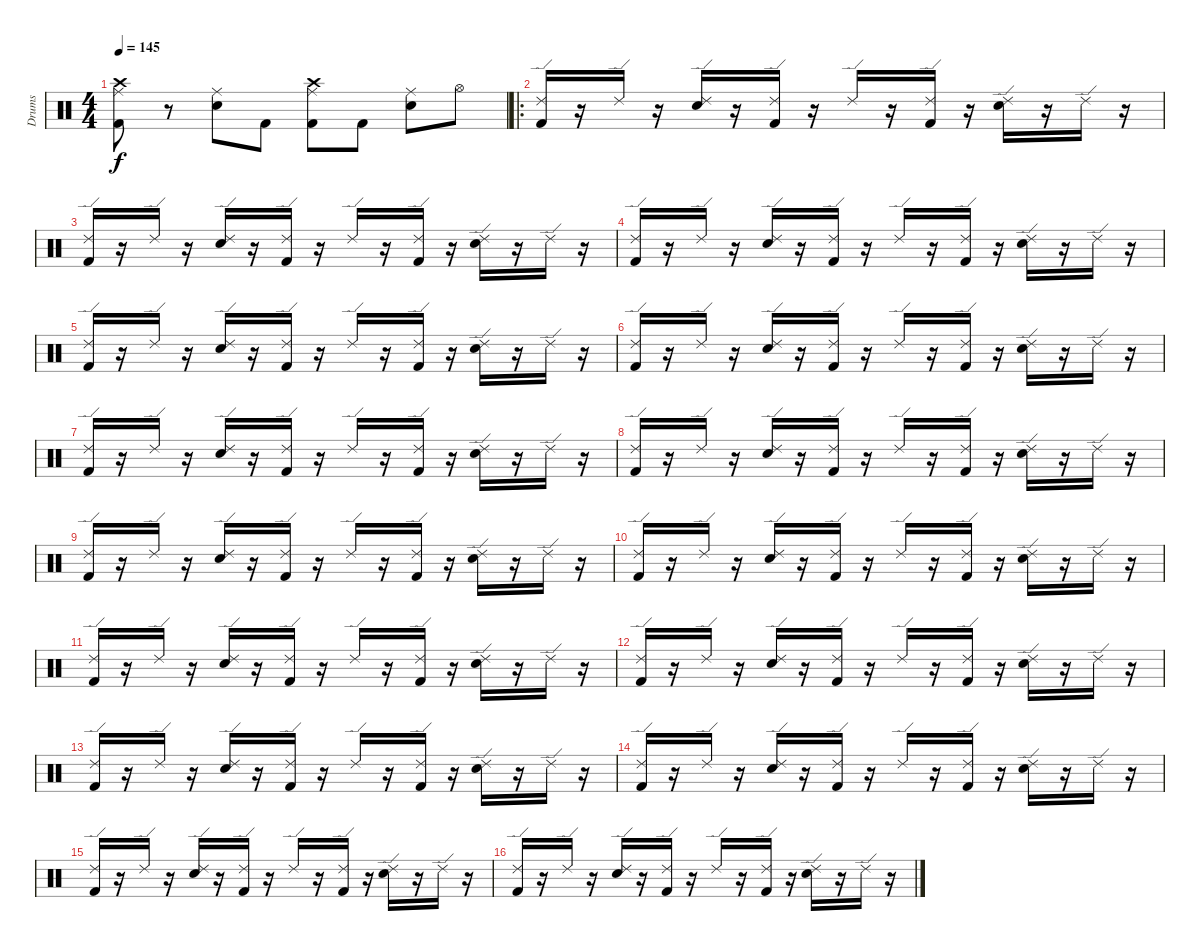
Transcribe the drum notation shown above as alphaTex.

\track ("Drums" "Drums") {instrument percussion}
\staff {score}
\articulation defaults
\ts (4 4)
\tempo 145
\clef neutral
\ks c
("Ride (middle)" "Kick (hit) 2" "Crash high (hit)").8{dy f} r.8 ("Ride (middle)" "Electric Snare (hit)").8 "Kick (hit) 2".8 ("Ride (middle)" "Kick (hit) 2" "Crash high (hit)").8 "Kick (hit) 2".8 ("Ride (middle)" "Electric Snare (hit)").8 "Hi-Hat (open)".8 |
\ro
("Ride (edge) 2" "Kick (hit) 2").16 r.16 "Ride (edge) 2".16 r.16 ("Ride (edge) 2" "Electric Snare (hit)").16 r.16 ("Ride (edge) 2" "Kick (hit) 2").16 r.16 "Ride (edge) 2".16 r.16 ("Ride (edge) 2" "Kick (hit) 2").16 r.16 ("Ride (edge) 2" "Electric Snare (hit)").16 r.16 "Ride (edge) 2".16 r.16 |
("Ride (edge) 2" "Kick (hit) 2").16 r.16 "Ride (edge) 2".16 r.16 ("Ride (edge) 2" "Electric Snare (hit)").16 r.16 ("Ride (edge) 2" "Kick (hit) 2").16 r.16 "Ride (edge) 2".16 r.16 ("Ride (edge) 2" "Kick (hit) 2").16 r.16 ("Ride (edge) 2" "Electric Snare (hit)").16 r.16 "Ride (edge) 2".16 r.16 |
("Ride (edge) 2" "Kick (hit) 2").16 r.16 "Ride (edge) 2".16 r.16 ("Ride (edge) 2" "Electric Snare (hit)").16 r.16 ("Ride (edge) 2" "Kick (hit) 2").16 r.16 "Ride (edge) 2".16 r.16 ("Ride (edge) 2" "Kick (hit) 2").16 r.16 ("Ride (edge) 2" "Electric Snare (hit)").16 r.16 "Ride (edge) 2".16 r.16 |
("Ride (edge) 2" "Kick (hit) 2").16 r.16 "Ride (edge) 2".16 r.16 ("Ride (edge) 2" "Electric Snare (hit)").16 r.16 ("Ride (edge) 2" "Kick (hit) 2").16 r.16 "Ride (edge) 2".16 r.16 ("Ride (edge) 2" "Kick (hit) 2").16 r.16 ("Ride (edge) 2" "Electric Snare (hit)").16 r.16 "Ride (edge) 2".16 r.16 |
("Ride (edge) 2" "Kick (hit) 2").16 r.16 "Ride (edge) 2".16 r.16 ("Ride (edge) 2" "Electric Snare (hit)").16 r.16 ("Ride (edge) 2" "Kick (hit) 2").16 r.16 "Ride (edge) 2".16 r.16 ("Ride (edge) 2" "Kick (hit) 2").16 r.16 ("Ride (edge) 2" "Electric Snare (hit)").16 r.16 "Ride (edge) 2".16 r.16 |
("Ride (edge) 2" "Kick (hit) 2").16 r.16 "Ride (edge) 2".16 r.16 ("Ride (edge) 2" "Electric Snare (hit)").16 r.16 ("Ride (edge) 2" "Kick (hit) 2").16 r.16 "Ride (edge) 2".16 r.16 ("Ride (edge) 2" "Kick (hit) 2").16 r.16 ("Ride (edge) 2" "Electric Snare (hit)").16 r.16 "Ride (edge) 2".16 r.16 |
("Ride (edge) 2" "Kick (hit) 2").16 r.16 "Ride (edge) 2".16 r.16 ("Ride (edge) 2" "Electric Snare (hit)").16 r.16 ("Ride (edge) 2" "Kick (hit) 2").16 r.16 "Ride (edge) 2".16 r.16 ("Ride (edge) 2" "Kick (hit) 2").16 r.16 ("Ride (edge) 2" "Electric Snare (hit)").16 r.16 "Ride (edge) 2".16 r.16 |
("Ride (edge) 2" "Kick (hit) 2").16 r.16 "Ride (edge) 2".16 r.16 ("Ride (edge) 2" "Electric Snare (hit)").16 r.16 ("Ride (edge) 2" "Kick (hit) 2").16 r.16 "Ride (edge) 2".16 r.16 ("Ride (edge) 2" "Kick (hit) 2").16 r.16 ("Ride (edge) 2" "Electric Snare (hit)").16 r.16 "Ride (edge) 2".16 r.16 |
("Ride (edge) 2" "Kick (hit) 2").16 r.16 "Ride (edge) 2".16 r.16 ("Ride (edge) 2" "Electric Snare (hit)").16 r.16 ("Ride (edge) 2" "Kick (hit) 2").16 r.16 "Ride (edge) 2".16 r.16 ("Ride (edge) 2" "Kick (hit) 2").16 r.16 ("Ride (edge) 2" "Electric Snare (hit)").16 r.16 "Ride (edge) 2".16 r.16 |
("Ride (edge) 2" "Kick (hit) 2").16 r.16 "Ride (edge) 2".16 r.16 ("Ride (edge) 2" "Electric Snare (hit)").16 r.16 ("Ride (edge) 2" "Kick (hit) 2").16 r.16 "Ride (edge) 2".16 r.16 ("Ride (edge) 2" "Kick (hit) 2").16 r.16 ("Ride (edge) 2" "Electric Snare (hit)").16 r.16 "Ride (edge) 2".16 r.16 |
("Ride (edge) 2" "Kick (hit) 2").16 r.16 "Ride (edge) 2".16 r.16 ("Ride (edge) 2" "Electric Snare (hit)").16 r.16 ("Ride (edge) 2" "Kick (hit) 2").16 r.16 "Ride (edge) 2".16 r.16 ("Ride (edge) 2" "Kick (hit) 2").16 r.16 ("Ride (edge) 2" "Electric Snare (hit)").16 r.16 "Ride (edge) 2".16 r.16 |
("Ride (edge) 2" "Kick (hit) 2").16 r.16 "Ride (edge) 2".16 r.16 ("Ride (edge) 2" "Electric Snare (hit)").16 r.16 ("Ride (edge) 2" "Kick (hit) 2").16 r.16 "Ride (edge) 2".16 r.16 ("Ride (edge) 2" "Kick (hit) 2").16 r.16 ("Ride (edge) 2" "Electric Snare (hit)").16 r.16 "Ride (edge) 2".16 r.16 |
("Ride (edge) 2" "Kick (hit) 2").16 r.16 "Ride (edge) 2".16 r.16 ("Ride (edge) 2" "Electric Snare (hit)").16 r.16 ("Ride (edge) 2" "Kick (hit) 2").16 r.16 "Ride (edge) 2".16 r.16 ("Ride (edge) 2" "Kick (hit) 2").16 r.16 ("Ride (edge) 2" "Electric Snare (hit)").16 r.16 "Ride (edge) 2".16 r.16 |
("Ride (edge) 2" "Kick (hit) 2").16 r.16 "Ride (edge) 2".16 r.16 ("Ride (edge) 2" "Electric Snare (hit)").16 r.16 ("Ride (edge) 2" "Kick (hit) 2").16 r.16 "Ride (edge) 2".16 r.16 ("Ride (edge) 2" "Kick (hit) 2").16 r.16 ("Ride (edge) 2" "Electric Snare (hit)").16 r.16 "Ride (edge) 2".16 r.16 |
("Ride (edge) 2" "Kick (hit) 2").16 r.16 "Ride (edge) 2".16 r.16 ("Ride (edge) 2" "Electric Snare (hit)").16 r.16 ("Ride (edge) 2" "Kick (hit) 2").16 r.16 "Ride (edge) 2".16 r.16 ("Ride (edge) 2" "Kick (hit) 2").16 r.16 ("Ride (edge) 2" "Electric Snare (hit)").16 r.16 "Ride (edge) 2".16 r.16
